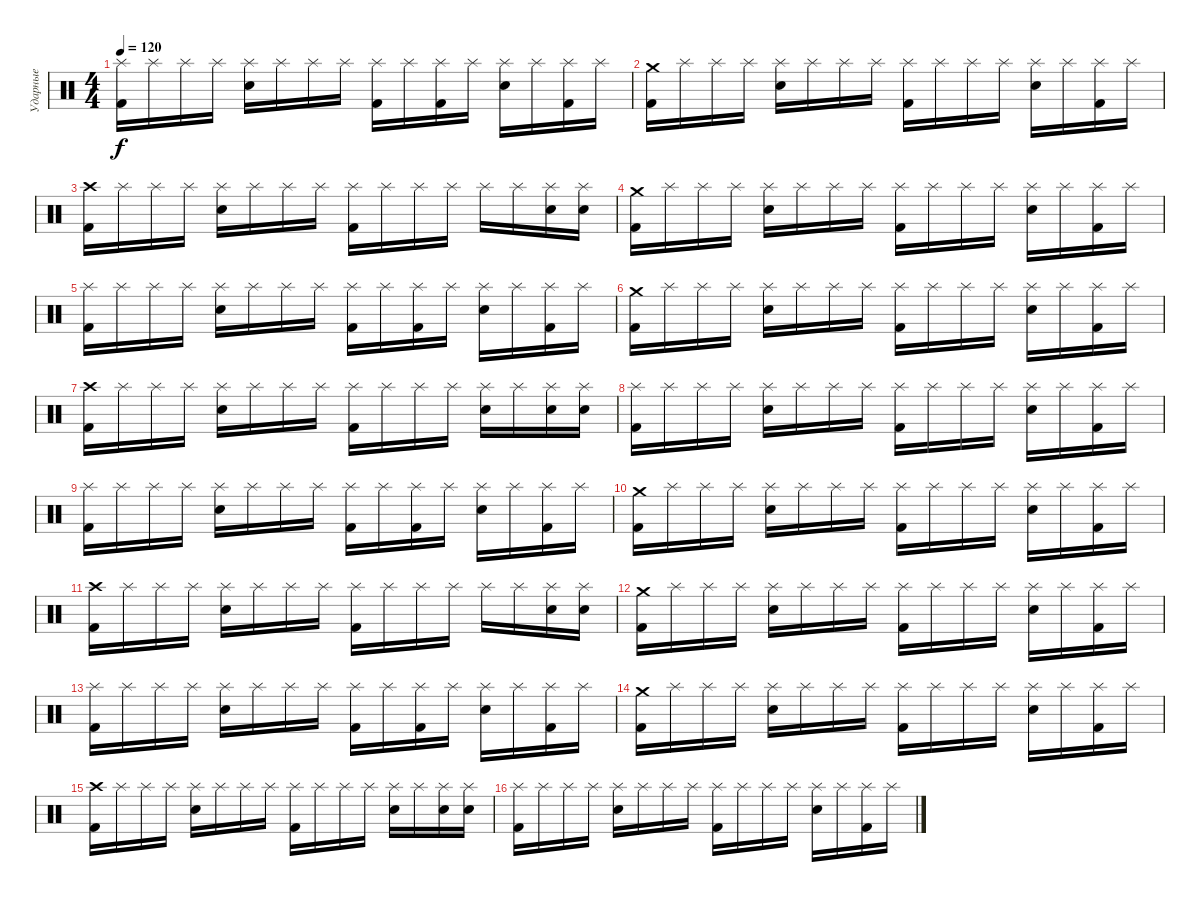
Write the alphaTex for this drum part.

\track ("Ударные" "Ударные") {instrument percussion}
\staff {score}
\articulation defaults
\ts (4 4)
\tempo 120
\clef neutral
\ks c
("Splash (hit)" "Kick (hit) 2").16{dy f} "Splash (hit)".16 "Splash (hit)".16 "Splash (hit)".16 ("Splash (hit)" "Electric Snare (hit)").16 "Splash (hit)".16 "Splash (hit)".16 "Splash (hit)".16 ("Splash (hit)" "Kick (hit) 2").16 "Splash (hit)".16 ("Splash (hit)" "Kick (hit) 2").16 "Splash (hit)".16 ("Splash (hit)" "Electric Snare (hit)").16 "Splash (hit)".16 ("Splash (hit)" "Kick (hit) 2").16 "Splash (hit)".16 |
("Crash medium (hit)" "Kick (hit) 2").16 "Splash (hit)".16 "Splash (hit)".16 "Splash (hit)".16 ("Splash (hit)" "Electric Snare (hit)").16 "Splash (hit)".16 "Splash (hit)".16 "Splash (hit)".16 ("Splash (hit)" "Kick (hit) 2").16 "Splash (hit)".16 "Splash (hit)".16 "Splash (hit)".16 ("Splash (hit)" "Electric Snare (hit)").16 "Splash (hit)".16 ("Splash (hit)" "Kick (hit) 2").16 "Splash (hit)".16 |
("Crash high (hit)" "Kick (hit) 2").16 "Splash (hit)".16 "Splash (hit)".16 "Splash (hit)".16 ("Splash (hit)" "Electric Snare (hit)").16 "Splash (hit)".16 "Splash (hit)".16 "Splash (hit)".16 ("Splash (hit)" "Kick (hit) 2").16 "Splash (hit)".16 "Splash (hit)".16 "Splash (hit)".16 "Splash (hit)".16 "Splash (hit)".16 ("Splash (hit)" "Electric Snare (hit)").16 ("Splash (hit)" "Electric Snare (hit)").16 |
("Crash medium (hit)" "Kick (hit) 2").16 "Splash (hit)".16 "Splash (hit)".16 "Splash (hit)".16 ("Splash (hit)" "Electric Snare (hit)").16 "Splash (hit)".16 "Splash (hit)".16 "Splash (hit)".16 ("Splash (hit)" "Kick (hit) 2").16 "Splash (hit)".16 "Splash (hit)".16 "Splash (hit)".16 ("Splash (hit)" "Electric Snare (hit)").16 "Splash (hit)".16 ("Splash (hit)" "Kick (hit) 2").16 "Splash (hit)".16 |
("Splash (hit)" "Kick (hit) 2").16 "Splash (hit)".16 "Splash (hit)".16 "Splash (hit)".16 ("Splash (hit)" "Electric Snare (hit)").16 "Splash (hit)".16 "Splash (hit)".16 "Splash (hit)".16 ("Splash (hit)" "Kick (hit) 2").16 "Splash (hit)".16 ("Splash (hit)" "Kick (hit) 2").16 "Splash (hit)".16 ("Splash (hit)" "Electric Snare (hit)").16 "Splash (hit)".16 ("Splash (hit)" "Kick (hit) 2").16 "Splash (hit)".16 |
("Crash medium (hit)" "Kick (hit) 2").16 "Splash (hit)".16 "Splash (hit)".16 "Splash (hit)".16 ("Splash (hit)" "Electric Snare (hit)").16 "Splash (hit)".16 "Splash (hit)".16 "Splash (hit)".16 ("Splash (hit)" "Kick (hit) 2").16 "Splash (hit)".16 "Splash (hit)".16 "Splash (hit)".16 ("Splash (hit)" "Electric Snare (hit)").16 "Splash (hit)".16 ("Splash (hit)" "Kick (hit) 2").16 "Splash (hit)".16 |
("Crash high (hit)" "Kick (hit) 2").16 "Splash (hit)".16 "Splash (hit)".16 "Splash (hit)".16 ("Splash (hit)" "Electric Snare (hit)").16 "Splash (hit)".16 "Splash (hit)".16 "Splash (hit)".16 ("Splash (hit)" "Kick (hit) 2").16 "Splash (hit)".16 "Splash (hit)".16 "Splash (hit)".16 ("Splash (hit)" "Electric Snare (hit)").16 "Splash (hit)".16 ("Splash (hit)" "Electric Snare (hit)").16 ("Splash (hit)" "Electric Snare (hit)").16 |
("Splash (hit)" "Kick (hit) 2").16 "Splash (hit)".16 "Splash (hit)".16 "Splash (hit)".16 ("Splash (hit)" "Electric Snare (hit)").16 "Splash (hit)".16 "Splash (hit)".16 "Splash (hit)".16 ("Splash (hit)" "Kick (hit) 2").16 "Splash (hit)".16 "Splash (hit)".16 "Splash (hit)".16 ("Splash (hit)" "Electric Snare (hit)").16 "Splash (hit)".16 ("Splash (hit)" "Kick (hit) 2").16 "Splash (hit)".16 |
("Splash (hit)" "Kick (hit) 2").16 "Splash (hit)".16 "Splash (hit)".16 "Splash (hit)".16 ("Splash (hit)" "Electric Snare (hit)").16 "Splash (hit)".16 "Splash (hit)".16 "Splash (hit)".16 ("Splash (hit)" "Kick (hit) 2").16 "Splash (hit)".16 ("Splash (hit)" "Kick (hit) 2").16 "Splash (hit)".16 ("Splash (hit)" "Electric Snare (hit)").16 "Splash (hit)".16 ("Splash (hit)" "Kick (hit) 2").16 "Splash (hit)".16 |
("Crash medium (hit)" "Kick (hit) 2").16 "Splash (hit)".16 "Splash (hit)".16 "Splash (hit)".16 ("Splash (hit)" "Electric Snare (hit)").16 "Splash (hit)".16 "Splash (hit)".16 "Splash (hit)".16 ("Splash (hit)" "Kick (hit) 2").16 "Splash (hit)".16 "Splash (hit)".16 "Splash (hit)".16 ("Splash (hit)" "Electric Snare (hit)").16 "Splash (hit)".16 ("Splash (hit)" "Kick (hit) 2").16 "Splash (hit)".16 |
("Crash high (hit)" "Kick (hit) 2").16 "Splash (hit)".16 "Splash (hit)".16 "Splash (hit)".16 ("Splash (hit)" "Electric Snare (hit)").16 "Splash (hit)".16 "Splash (hit)".16 "Splash (hit)".16 ("Splash (hit)" "Kick (hit) 2").16 "Splash (hit)".16 "Splash (hit)".16 "Splash (hit)".16 "Splash (hit)".16 "Splash (hit)".16 ("Splash (hit)" "Electric Snare (hit)").16 ("Splash (hit)" "Electric Snare (hit)").16 |
("Crash medium (hit)" "Kick (hit) 2").16 "Splash (hit)".16 "Splash (hit)".16 "Splash (hit)".16 ("Splash (hit)" "Electric Snare (hit)").16 "Splash (hit)".16 "Splash (hit)".16 "Splash (hit)".16 ("Splash (hit)" "Kick (hit) 2").16 "Splash (hit)".16 "Splash (hit)".16 "Splash (hit)".16 ("Splash (hit)" "Electric Snare (hit)").16 "Splash (hit)".16 ("Splash (hit)" "Kick (hit) 2").16 "Splash (hit)".16 |
("Splash (hit)" "Kick (hit) 2").16 "Splash (hit)".16 "Splash (hit)".16 "Splash (hit)".16 ("Splash (hit)" "Electric Snare (hit)").16 "Splash (hit)".16 "Splash (hit)".16 "Splash (hit)".16 ("Splash (hit)" "Kick (hit) 2").16 "Splash (hit)".16 ("Splash (hit)" "Kick (hit) 2").16 "Splash (hit)".16 ("Splash (hit)" "Electric Snare (hit)").16 "Splash (hit)".16 ("Splash (hit)" "Kick (hit) 2").16 "Splash (hit)".16 |
("Crash medium (hit)" "Kick (hit) 2").16 "Splash (hit)".16 "Splash (hit)".16 "Splash (hit)".16 ("Splash (hit)" "Electric Snare (hit)").16 "Splash (hit)".16 "Splash (hit)".16 "Splash (hit)".16 ("Splash (hit)" "Kick (hit) 2").16 "Splash (hit)".16 "Splash (hit)".16 "Splash (hit)".16 ("Splash (hit)" "Electric Snare (hit)").16 "Splash (hit)".16 ("Splash (hit)" "Kick (hit) 2").16 "Splash (hit)".16 |
("Crash high (hit)" "Kick (hit) 2").16 "Splash (hit)".16 "Splash (hit)".16 "Splash (hit)".16 ("Splash (hit)" "Electric Snare (hit)").16 "Splash (hit)".16 "Splash (hit)".16 "Splash (hit)".16 ("Splash (hit)" "Kick (hit) 2").16 "Splash (hit)".16 "Splash (hit)".16 "Splash (hit)".16 ("Splash (hit)" "Electric Snare (hit)").16 "Splash (hit)".16 ("Splash (hit)" "Electric Snare (hit)").16 ("Splash (hit)" "Electric Snare (hit)").16 |
("Splash (hit)" "Kick (hit) 2").16 "Splash (hit)".16 "Splash (hit)".16 "Splash (hit)".16 ("Splash (hit)" "Electric Snare (hit)").16 "Splash (hit)".16 "Splash (hit)".16 "Splash (hit)".16 ("Splash (hit)" "Kick (hit) 2").16 "Splash (hit)".16 "Splash (hit)".16 "Splash (hit)".16 ("Splash (hit)" "Electric Snare (hit)").16 "Splash (hit)".16 ("Splash (hit)" "Kick (hit) 2").16 "Splash (hit)".16
